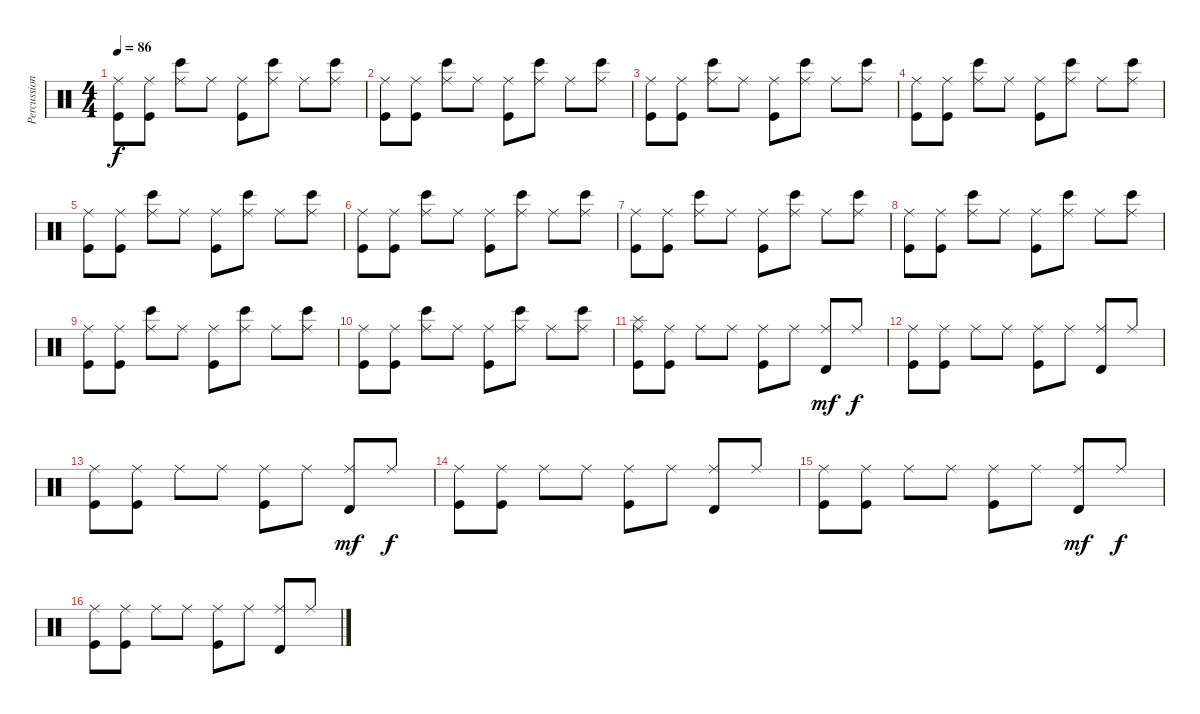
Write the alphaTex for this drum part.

\track ("Percussion" "Percussion") {instrument percussion}
\staff {score}
\articulation defaults
\ts (4 4)
\tempo 86
\clef neutral
\ks c
("Ride (middle)" "Kick (hit)").8{dy f} ("Ride (middle)" "Kick (hit)").8 ("Ride (middle)" "Bongo High (hit)").8 "Ride (middle)".8 ("Ride (middle)" "Kick (hit)").8 ("Ride (middle)" "Bongo High (hit)").8 "Ride (middle)".8 ("Ride (middle)" "Bongo High (hit)").8 |
("Ride (middle)" "Kick (hit)").8 ("Ride (middle)" "Kick (hit)").8 ("Ride (middle)" "Bongo High (hit)").8 "Ride (middle)".8 ("Ride (middle)" "Kick (hit)").8 ("Ride (middle)" "Bongo High (hit)").8 "Ride (middle)".8 ("Ride (middle)" "Bongo High (hit)").8 |
("Ride (middle)" "Kick (hit)").8 ("Ride (middle)" "Kick (hit)").8 ("Ride (middle)" "Bongo High (hit)").8 "Ride (middle)".8 ("Ride (middle)" "Kick (hit)").8 ("Ride (middle)" "Bongo High (hit)").8 "Ride (middle)".8 ("Ride (middle)" "Bongo High (hit)").8 |
("Ride (middle)" "Kick (hit)").8 ("Ride (middle)" "Kick (hit)").8 ("Ride (middle)" "Bongo High (hit)").8 "Ride (middle)".8 ("Ride (middle)" "Kick (hit)").8 ("Ride (middle)" "Bongo High (hit)").8 "Ride (middle)".8 ("Ride (middle)" "Bongo High (hit)").8 |
("Ride (middle)" "Kick (hit)").8 ("Ride (middle)" "Kick (hit)").8 ("Ride (middle)" "Bongo High (hit)").8 "Ride (middle)".8 ("Ride (middle)" "Kick (hit)").8 ("Ride (middle)" "Bongo High (hit)").8 "Ride (middle)".8 ("Ride (middle)" "Bongo High (hit)").8 |
("Ride (middle)" "Kick (hit)").8 ("Ride (middle)" "Kick (hit)").8 ("Ride (middle)" "Bongo High (hit)").8 "Ride (middle)".8 ("Ride (middle)" "Kick (hit)").8 ("Ride (middle)" "Bongo High (hit)").8 "Ride (middle)".8 ("Ride (middle)" "Bongo High (hit)").8 |
("Ride (middle)" "Kick (hit)").8 ("Ride (middle)" "Kick (hit)").8 ("Ride (middle)" "Bongo High (hit)").8 "Ride (middle)".8 ("Ride (middle)" "Kick (hit)").8 ("Ride (middle)" "Bongo High (hit)").8 "Ride (middle)".8 ("Ride (middle)" "Bongo High (hit)").8 |
("Ride (middle)" "Kick (hit)").8 ("Ride (middle)" "Kick (hit)").8 ("Ride (middle)" "Bongo High (hit)").8 "Ride (middle)".8 ("Ride (middle)" "Kick (hit)").8 ("Ride (middle)" "Bongo High (hit)").8 "Ride (middle)".8 ("Ride (middle)" "Bongo High (hit)").8 |
("Ride (middle)" "Kick (hit)").8 ("Ride (middle)" "Kick (hit)").8 ("Ride (middle)" "Bongo High (hit)").8 "Ride (middle)".8 ("Ride (middle)" "Kick (hit)").8 ("Ride (middle)" "Bongo High (hit)").8 "Ride (middle)".8 ("Ride (middle)" "Bongo High (hit)").8 |
("Ride (middle)" "Kick (hit)").8 ("Ride (middle)" "Kick (hit)").8 ("Ride (middle)" "Bongo High (hit)").8 "Ride (middle)".8 ("Ride (middle)" "Kick (hit)").8 ("Ride (middle)" "Bongo High (hit)").8 "Ride (middle)".8 ("Ride (middle)" "Bongo High (hit)").8 |
("Ride (middle)" "Kick (hit)" "Splash (hit)").8 ("Ride (middle)" "Kick (hit)").8 "Ride (middle)".8 "Ride (middle)".8 ("Ride (middle)" "Kick (hit)").8 "Ride (middle)".8 ("Ride (middle)" "Timbale high (hit)").8{dy mf} "Ride (middle)".8{dy f} |
("Ride (middle)" "Kick (hit)").8 ("Ride (middle)" "Kick (hit)").8 "Ride (middle)".8 "Ride (middle)".8 ("Ride (middle)" "Kick (hit)").8 "Ride (middle)".8 ("Ride (middle)" "Timbale high (hit)").8 "Ride (middle)".8 |
("Ride (middle)" "Kick (hit)").8 ("Ride (middle)" "Kick (hit)").8 "Ride (middle)".8 "Ride (middle)".8 ("Ride (middle)" "Kick (hit)").8 "Ride (middle)".8 ("Ride (middle)" "Timbale high (hit)").8{dy mf} "Ride (middle)".8{dy f} |
("Ride (middle)" "Kick (hit)").8 ("Ride (middle)" "Kick (hit)").8 "Ride (middle)".8 "Ride (middle)".8 ("Ride (middle)" "Kick (hit)").8 "Ride (middle)".8 ("Ride (middle)" "Timbale high (hit)").8 "Ride (middle)".8 |
("Ride (middle)" "Kick (hit)").8 ("Ride (middle)" "Kick (hit)").8 "Ride (middle)".8 "Ride (middle)".8 ("Ride (middle)" "Kick (hit)").8 "Ride (middle)".8 ("Ride (middle)" "Timbale high (hit)").8{dy mf} "Ride (middle)".8{dy f} |
("Ride (middle)" "Kick (hit)").8 ("Ride (middle)" "Kick (hit)").8 "Ride (middle)".8 "Ride (middle)".8 ("Ride (middle)" "Kick (hit)").8 "Ride (middle)".8 ("Ride (middle)" "Timbale high (hit)").8 "Ride (middle)".8
